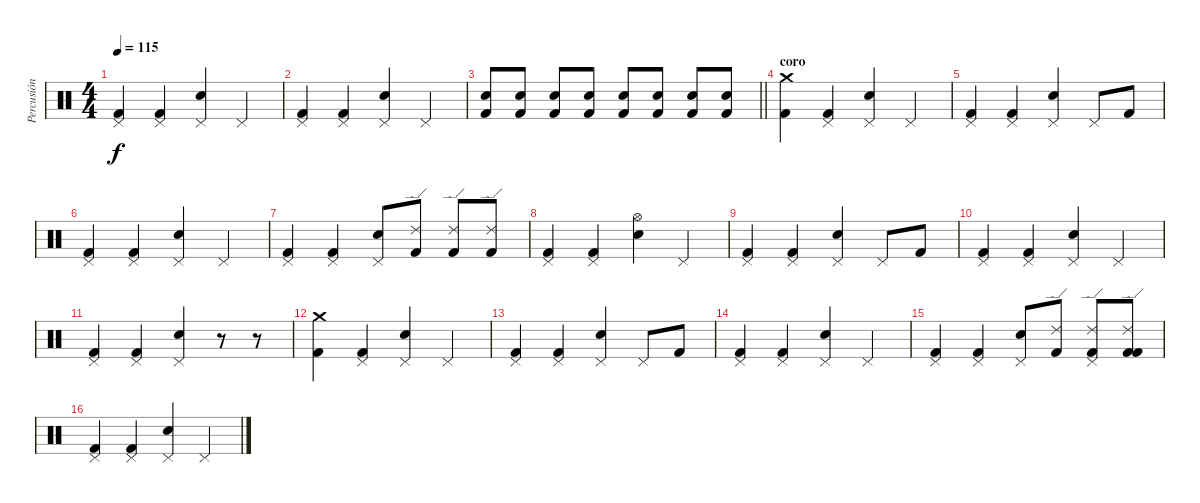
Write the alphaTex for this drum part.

\track ("Percusión" "Percusión") {instrument percussion}
\staff {score}
\articulation defaults
\ts (4 4)
\tempo 115
\clef neutral
\ks c
("Kick (hit) 2" "Pedal Hi-Hat (hit)").4{dy f} ("Kick (hit) 2" "Pedal Hi-Hat (hit)").4 ("Electric Snare (hit)" "Pedal Hi-Hat (hit)").4 "Pedal Hi-Hat (hit)".4 |
("Kick (hit) 2" "Pedal Hi-Hat (hit)").4 ("Kick (hit) 2" "Pedal Hi-Hat (hit)").4 ("Electric Snare (hit)" "Pedal Hi-Hat (hit)").4 "Pedal Hi-Hat (hit)".4 |
\barLineRight lightlight
("Kick (hit) 2" "Snare (hit) 2").8 ("Kick (hit) 2" "Snare (hit) 2").8 ("Kick (hit) 2" "Snare (hit) 2").8 ("Kick (hit) 2" "Snare (hit) 2").8 ("Kick (hit) 2" "Snare (hit) 2").8 ("Kick (hit) 2" "Snare (hit) 2").8 ("Kick (hit) 2" "Snare (hit) 2").8 ("Kick (hit) 2" "Snare (hit) 2").8 |
\section ("" "coro")
("Kick (hit) 2" "Crash medium (hit)").4 ("Kick (hit) 2" "Pedal Hi-Hat (hit)").4 ("Electric Snare (hit)" "Pedal Hi-Hat (hit)").4 "Pedal Hi-Hat (hit)".4 |
("Kick (hit) 2" "Pedal Hi-Hat (hit)").4 ("Kick (hit) 2" "Pedal Hi-Hat (hit)").4 ("Electric Snare (hit)" "Pedal Hi-Hat (hit)").4 "Pedal Hi-Hat (hit)".8 "Kick (hit) 2".8 |
("Kick (hit) 2" "Pedal Hi-Hat (hit)").4 ("Kick (hit) 2" "Pedal Hi-Hat (hit)").4 ("Electric Snare (hit)" "Pedal Hi-Hat (hit)").4 "Pedal Hi-Hat (hit)".4 |
("Kick (hit) 2" "Pedal Hi-Hat (hit)").4 ("Kick (hit) 2" "Pedal Hi-Hat (hit)").4 ("Electric Snare (hit)" "Pedal Hi-Hat (hit)").8 ("Ride (edge) 2" "Kick (hit) 2").8 ("Ride (edge) 2" "Kick (hit) 2").8 ("Kick (hit) 2" "Ride (edge) 2").8 |
("Kick (hit) 2" "Pedal Hi-Hat (hit)").4 ("Kick (hit) 2" "Pedal Hi-Hat (hit)").4 ("Electric Snare (hit)" "Hi-Hat (open)").4 "Pedal Hi-Hat (hit)".4 |
("Kick (hit) 2" "Pedal Hi-Hat (hit)").4 ("Kick (hit) 2" "Pedal Hi-Hat (hit)").4 ("Electric Snare (hit)" "Pedal Hi-Hat (hit)").4 "Pedal Hi-Hat (hit)".8 "Kick (hit) 2".8 |
("Kick (hit) 2" "Pedal Hi-Hat (hit)").4 ("Kick (hit) 2" "Pedal Hi-Hat (hit)").4 ("Electric Snare (hit)" "Pedal Hi-Hat (hit)").4 "Pedal Hi-Hat (hit)".4 |
("Kick (hit) 2" "Pedal Hi-Hat (hit)").4 ("Kick (hit) 2" "Pedal Hi-Hat (hit)").4 ("Electric Snare (hit)" "Pedal Hi-Hat (hit)").4 r.8 r.8 |
("Kick (hit) 2" "Crash medium (hit)").4 ("Kick (hit) 2" "Pedal Hi-Hat (hit)").4 ("Electric Snare (hit)" "Pedal Hi-Hat (hit)").4 "Pedal Hi-Hat (hit)".4 |
("Kick (hit) 2" "Pedal Hi-Hat (hit)").4 ("Kick (hit) 2" "Pedal Hi-Hat (hit)").4 ("Electric Snare (hit)" "Pedal Hi-Hat (hit)").4 "Pedal Hi-Hat (hit)".8 "Kick (hit) 2".8 |
("Kick (hit) 2" "Pedal Hi-Hat (hit)").4 ("Kick (hit) 2" "Pedal Hi-Hat (hit)").4 ("Electric Snare (hit)" "Pedal Hi-Hat (hit)").4 "Pedal Hi-Hat (hit)".4 |
("Kick (hit) 2" "Pedal Hi-Hat (hit)").4 ("Kick (hit) 2" "Pedal Hi-Hat (hit)").4 ("Electric Snare (hit)" "Pedal Hi-Hat (hit)").8 ("Kick (hit) 2" "Ride (edge) 2").8 ("Pedal Hi-Hat (hit)" "Kick (hit) 2" "Ride (edge) 2").8 ("Kick (hit) 2" "Kick (hit) 2" "Ride (edge) 2").8 |
("Kick (hit) 2" "Pedal Hi-Hat (hit)").4 ("Kick (hit) 2" "Pedal Hi-Hat (hit)").4 ("Electric Snare (hit)" "Pedal Hi-Hat (hit)").4 "Pedal Hi-Hat (hit)".4
